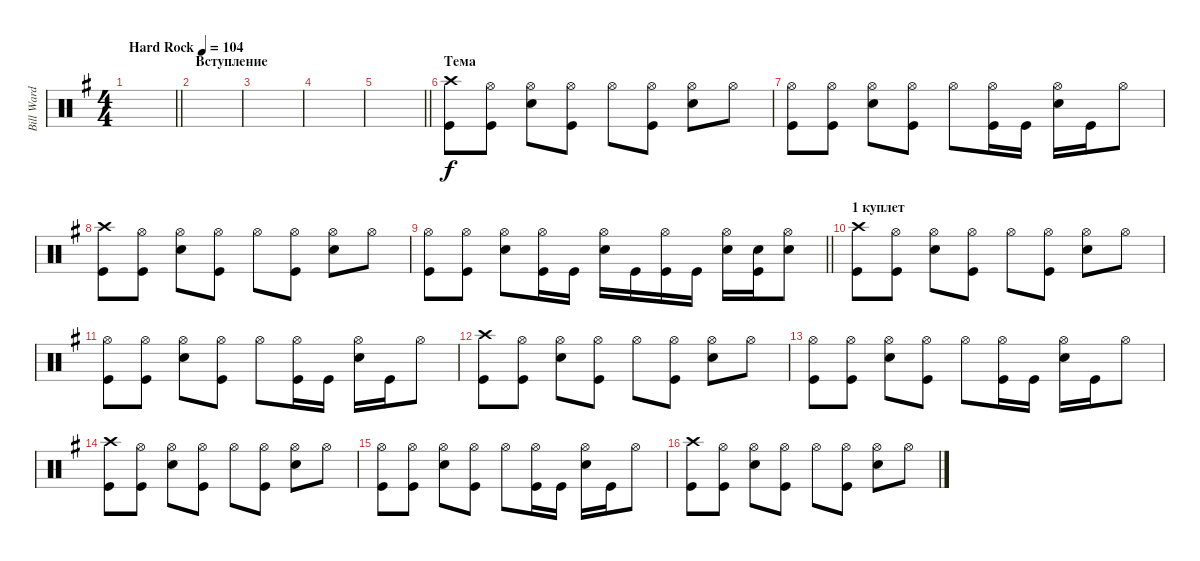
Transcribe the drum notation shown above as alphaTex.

\track ("Bill Ward" "Bill Ward") {instrument percussion}
\staff {score}
\articulation defaults
\ts (4 4)
\tempo (104 "Hard Rock")
\clef neutral
\barLineRight lightlight
\ks g
|
\section ("" "Вступление")
|
|
|
\barLineRight lightlight
|
\section ("" "Тема")
("Crash high (hit)" "Kick (hit)").8 ("Kick (hit)" "Hi-Hat (open)").8 ("Snare (hit) 2" "Hi-Hat (open)").8 ("Kick (hit)" "Hi-Hat (open)").8 "Hi-Hat (open)".8 ("Kick (hit)" "Hi-Hat (open)").8 ("Hi-Hat (open)" "Snare (hit) 2").8 "Hi-Hat (open)".8 |
("Kick (hit)" "Hi-Hat (open)").8 ("Kick (hit)" "Hi-Hat (open)").8 ("Snare (hit) 2" "Hi-Hat (open)").8 ("Kick (hit)" "Hi-Hat (open)").8 "Hi-Hat (open)".8 ("Kick (hit)" "Hi-Hat (open)").16 "Kick (hit)".16 ("Hi-Hat (open)" "Snare (hit) 2").16 "Kick (hit)".16 "Hi-Hat (open)".8 |
("Crash high (hit)" "Kick (hit)").8 ("Kick (hit)" "Hi-Hat (open)").8 ("Snare (hit) 2" "Hi-Hat (open)").8 ("Kick (hit)" "Hi-Hat (open)").8 "Hi-Hat (open)".8 ("Kick (hit)" "Hi-Hat (open)").8 ("Hi-Hat (open)" "Snare (hit) 2").8 "Hi-Hat (open)".8 |
\barLineRight lightlight
("Kick (hit)" "Hi-Hat (open)").8 ("Kick (hit)" "Hi-Hat (open)").8 ("Snare (hit) 2" "Hi-Hat (open)").8 ("Kick (hit)" "Hi-Hat (open)").16 "Kick (hit)".16 ("Hi-Hat (open)" "Snare (hit) 2").16 "Kick (hit)".16 ("Kick (hit)" "Hi-Hat (open)").16 "Kick (hit)".16 ("Hi-Hat (open)" "Snare (hit) 2").16 ("Kick (hit)" "Snare (hit) 2").16 ("Hi-Hat (open)" "Snare (hit) 2").8 |
\section ("" "1 куплет")
("Crash high (hit)" "Kick (hit)").8 ("Kick (hit)" "Hi-Hat (open)").8 ("Snare (hit) 2" "Hi-Hat (open)").8 ("Kick (hit)" "Hi-Hat (open)").8 "Hi-Hat (open)".8 ("Kick (hit)" "Hi-Hat (open)").8 ("Hi-Hat (open)" "Snare (hit) 2").8 "Hi-Hat (open)".8 |
("Kick (hit)" "Hi-Hat (open)").8 ("Kick (hit)" "Hi-Hat (open)").8 ("Snare (hit) 2" "Hi-Hat (open)").8 ("Kick (hit)" "Hi-Hat (open)").8 "Hi-Hat (open)".8 ("Kick (hit)" "Hi-Hat (open)").16 "Kick (hit)".16 ("Snare (hit) 2" "Hi-Hat (open)").16 "Kick (hit)".16 "Hi-Hat (open)".8 |
("Crash high (hit)" "Kick (hit)").8 ("Kick (hit)" "Hi-Hat (open)").8 ("Snare (hit) 2" "Hi-Hat (open)").8 ("Kick (hit)" "Hi-Hat (open)").8 "Hi-Hat (open)".8 ("Kick (hit)" "Hi-Hat (open)").8 ("Hi-Hat (open)" "Snare (hit) 2").8 "Hi-Hat (open)".8 |
("Kick (hit)" "Hi-Hat (open)").8 ("Kick (hit)" "Hi-Hat (open)").8 ("Snare (hit) 2" "Hi-Hat (open)").8 ("Kick (hit)" "Hi-Hat (open)").8 "Hi-Hat (open)".8 ("Kick (hit)" "Hi-Hat (open)").16 "Kick (hit)".16 ("Snare (hit) 2" "Hi-Hat (open)").16 "Kick (hit)".16 "Hi-Hat (open)".8 |
("Crash high (hit)" "Kick (hit)").8 ("Kick (hit)" "Hi-Hat (open)").8 ("Snare (hit) 2" "Hi-Hat (open)").8 ("Kick (hit)" "Hi-Hat (open)").8 "Hi-Hat (open)".8 ("Kick (hit)" "Hi-Hat (open)").8 ("Hi-Hat (open)" "Snare (hit) 2").8 "Hi-Hat (open)".8 |
("Kick (hit)" "Hi-Hat (open)").8 ("Kick (hit)" "Hi-Hat (open)").8 ("Snare (hit) 2" "Hi-Hat (open)").8 ("Kick (hit)" "Hi-Hat (open)").8 "Hi-Hat (open)".8 ("Kick (hit)" "Hi-Hat (open)").16 "Kick (hit)".16 ("Snare (hit) 2" "Hi-Hat (open)").16 "Kick (hit)".16 "Hi-Hat (open)".8 |
("Crash high (hit)" "Kick (hit)").8 ("Kick (hit)" "Hi-Hat (open)").8 ("Snare (hit) 2" "Hi-Hat (open)").8 ("Kick (hit)" "Hi-Hat (open)").8 "Hi-Hat (open)".8 ("Kick (hit)" "Hi-Hat (open)").8 ("Hi-Hat (open)" "Snare (hit) 2").8 "Hi-Hat (open)".8
